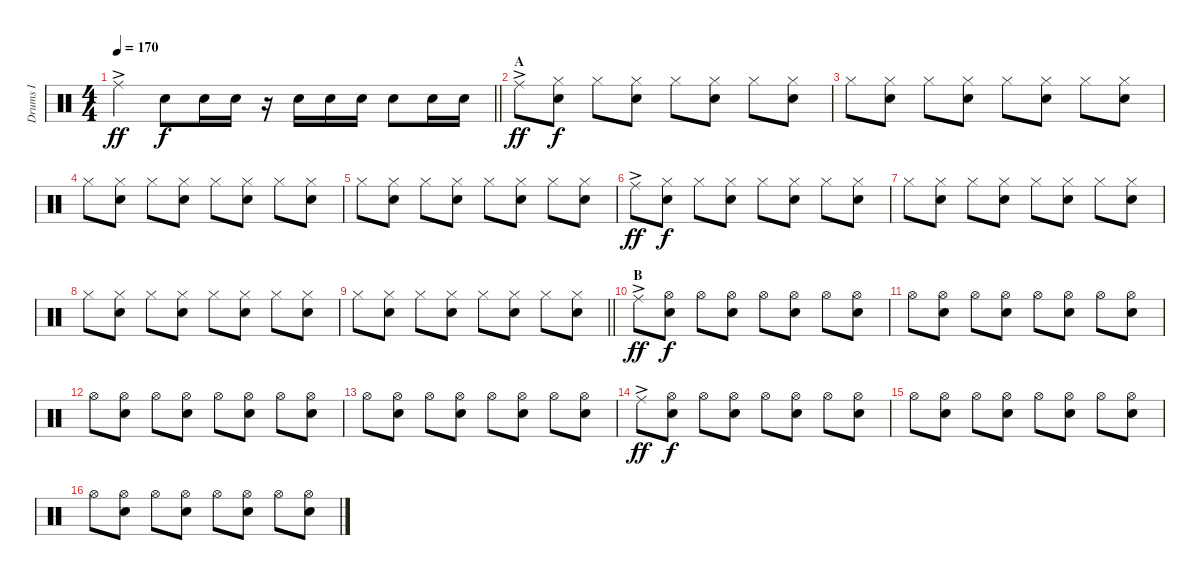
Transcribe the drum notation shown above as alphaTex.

\track ("Drums I" "Drums I") {instrument percussion}
\staff {score}
\articulation defaults
\ts (4 4)
\tempo 170
\clef neutral
\barLineRight lightlight
\ks c "Ride (middle)"{ac}.4{dy ff} "Snare (hit) 2".8{dy f} "Snare (hit) 2".16 "Snare (hit) 2".16
r.16 "Snare (hit) 2".16 "Snare (hit) 2".16 "Snare (hit) 2".16 "Snare (hit) 2".8 "Snare (hit) 2".16 "Snare (hit) 2".16 |
\section ("" "A")
"Ride (middle)"{ac}.8{dy ff} ("Hi-Hat (closed)" "Snare (hit) 2").8{dy f} "Hi-Hat (closed)".8 ("Hi-Hat (closed)" "Snare (hit) 2").8 "Hi-Hat (closed)".8 ("Hi-Hat (closed)" "Snare (hit) 2").8 "Hi-Hat (closed)".8 ("Hi-Hat (closed)" "Snare (hit) 2").8 |
"Hi-Hat (closed)".8 ("Hi-Hat (closed)" "Snare (hit) 2").8 "Hi-Hat (closed)".8 ("Hi-Hat (closed)" "Snare (hit) 2").8 "Hi-Hat (closed)".8 ("Hi-Hat (closed)" "Snare (hit) 2").8 "Hi-Hat (closed)".8 ("Hi-Hat (closed)" "Snare (hit) 2").8 |
"Hi-Hat (closed)".8 ("Hi-Hat (closed)" "Snare (hit) 2").8 "Hi-Hat (closed)".8 ("Hi-Hat (closed)" "Snare (hit) 2").8 "Hi-Hat (closed)".8 ("Hi-Hat (closed)" "Snare (hit) 2").8 "Hi-Hat (closed)".8 ("Hi-Hat (closed)" "Snare (hit) 2").8 |
"Hi-Hat (closed)".8 ("Hi-Hat (closed)" "Snare (hit) 2").8 "Hi-Hat (closed)".8 ("Hi-Hat (closed)" "Snare (hit) 2").8 "Hi-Hat (closed)".8 ("Hi-Hat (closed)" "Snare (hit) 2").8 "Hi-Hat (closed)".8 ("Hi-Hat (closed)" "Snare (hit) 2").8 |
"Ride (middle)"{ac}.8{dy ff} ("Hi-Hat (closed)" "Snare (hit) 2").8{dy f} "Hi-Hat (closed)".8 ("Hi-Hat (closed)" "Snare (hit) 2").8 "Hi-Hat (closed)".8 ("Hi-Hat (closed)" "Snare (hit) 2").8 "Hi-Hat (closed)".8 ("Hi-Hat (closed)" "Snare (hit) 2").8 |
"Hi-Hat (closed)".8 ("Hi-Hat (closed)" "Snare (hit) 2").8 "Hi-Hat (closed)".8 ("Hi-Hat (closed)" "Snare (hit) 2").8 "Hi-Hat (closed)".8 ("Hi-Hat (closed)" "Snare (hit) 2").8 "Hi-Hat (closed)".8 ("Hi-Hat (closed)" "Snare (hit) 2").8 |
"Hi-Hat (closed)".8 ("Hi-Hat (closed)" "Snare (hit) 2").8 "Hi-Hat (closed)".8 ("Hi-Hat (closed)" "Snare (hit) 2").8 "Hi-Hat (closed)".8 ("Hi-Hat (closed)" "Snare (hit) 2").8 "Hi-Hat (closed)".8 ("Hi-Hat (closed)" "Snare (hit) 2").8 |
\barLineRight lightlight "Hi-Hat (closed)".8
("Hi-Hat (closed)" "Snare (hit) 2").8 "Hi-Hat (closed)".8 ("Hi-Hat (closed)" "Snare (hit) 2").8 "Hi-Hat (closed)".8 ("Hi-Hat (closed)" "Snare (hit) 2").8 "Hi-Hat (closed)".8 ("Hi-Hat (closed)" "Snare (hit) 2").8 |
\section ("" "B")
"Ride (middle)"{ac}.8{dy ff} ("Hi-Hat (open)" "Snare (hit) 2").8{dy f} "Hi-Hat (open)".8 ("Hi-Hat (open)" "Snare (hit) 2").8 "Hi-Hat (open)".8 ("Hi-Hat (open)" "Snare (hit) 2").8 "Hi-Hat (open)".8 ("Hi-Hat (open)" "Snare (hit) 2").8 |
"Hi-Hat (open)".8 ("Hi-Hat (open)" "Snare (hit) 2").8 "Hi-Hat (open)".8 ("Hi-Hat (open)" "Snare (hit) 2").8 "Hi-Hat (open)".8 ("Hi-Hat (open)" "Snare (hit) 2").8 "Hi-Hat (open)".8 ("Hi-Hat (open)" "Snare (hit) 2").8 |
"Hi-Hat (open)".8 ("Hi-Hat (open)" "Snare (hit) 2").8 "Hi-Hat (open)".8 ("Hi-Hat (open)" "Snare (hit) 2").8 "Hi-Hat (open)".8 ("Hi-Hat (open)" "Snare (hit) 2").8 "Hi-Hat (open)".8 ("Hi-Hat (open)" "Snare (hit) 2").8 |
"Hi-Hat (open)".8 ("Hi-Hat (open)" "Snare (hit) 2").8 "Hi-Hat (open)".8 ("Hi-Hat (open)" "Snare (hit) 2").8 "Hi-Hat (open)".8 ("Hi-Hat (open)" "Snare (hit) 2").8 "Hi-Hat (open)".8 ("Hi-Hat (open)" "Snare (hit) 2").8 |
"Ride (middle)"{ac}.8{dy ff} ("Hi-Hat (open)" "Snare (hit) 2").8{dy f} "Hi-Hat (open)".8 ("Hi-Hat (open)" "Snare (hit) 2").8 "Hi-Hat (open)".8 ("Hi-Hat (open)" "Snare (hit) 2").8 "Hi-Hat (open)".8 ("Hi-Hat (open)" "Snare (hit) 2").8 |
"Hi-Hat (open)".8 ("Hi-Hat (open)" "Snare (hit) 2").8 "Hi-Hat (open)".8 ("Hi-Hat (open)" "Snare (hit) 2").8 "Hi-Hat (open)".8 ("Hi-Hat (open)" "Snare (hit) 2").8 "Hi-Hat (open)".8 ("Hi-Hat (open)" "Snare (hit) 2").8 |
"Hi-Hat (open)".8 ("Hi-Hat (open)" "Snare (hit) 2").8 "Hi-Hat (open)".8 ("Hi-Hat (open)" "Snare (hit) 2").8 "Hi-Hat (open)".8 ("Hi-Hat (open)" "Snare (hit) 2").8 "Hi-Hat (open)".8 ("Hi-Hat (open)" "Snare (hit) 2").8
